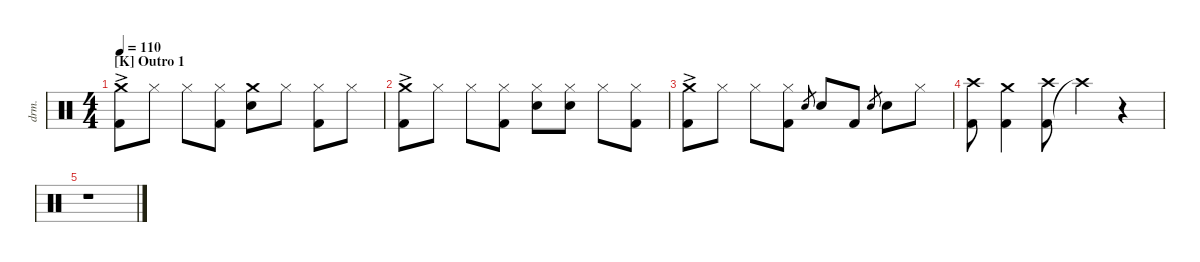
\defaultSystemsLayout 4
\hideDynamics
\bracketExtendMode nobrackets
\otherSystemsTrackNameOrientation horizontal
\track ("Drums" "drm.") {instrument percussion}
\staff {score}
\articulation defaults
\ts (4 4)
\section ("K" "Outro 1")
\tempo 110
\clef neutral
\ks aminor
("Kick (hit) 2"{ac} "Crash medium (hit)"{ac}).8{dy f beam Down} "Hi-Hat (closed)".8{beam Down} "Hi-Hat (closed)".8{beam Down} ("Hi-Hat (closed)" "Kick (hit) 2").8{beam Down} ("Snare (hit) 2" "Crash medium (hit)").8{beam Down} "Hi-Hat (closed)".8{beam Down} ("Hi-Hat (closed)" "Kick (hit) 2").8{beam Down} "Hi-Hat (closed)".8{beam Down} |
("Kick (hit) 2"{ac} "Crash medium (hit)"{ac}).8{beam Down} "Hi-Hat (closed)".8{beam Down} "Hi-Hat (closed)".8{beam Down} ("Hi-Hat (closed)" "Kick (hit) 2").8{beam Down} ("Snare (hit) 2" "Hi-Hat (closed)").8{beam Down} ("Hi-Hat (closed)" "Snare (hit) 2").8{beam Down} "Hi-Hat (closed)".8{beam Down} ("Hi-Hat (closed)" "Kick (hit) 2").8{beam Down} |
("Kick (hit) 2"{ac} "Crash medium (hit)"{ac}).8{beam Down} "Hi-Hat (closed)".8{beam Down} "Hi-Hat (closed)".8{beam Down} ("Hi-Hat (closed)" "Kick (hit) 2").8{beam Down} "Snare (hit) 2".8{gr beam Up} "Snare (hit) 2".8{beam Up} "Kick (hit) 2".8{beam Up} "Snare (hit) 2".8{gr beam Up} "Snare (hit) 2".8{beam Down} "Hi-Hat (closed)".8{beam Down} |
("Kick (hit) 2" "Crash high (hit)").8{beam Down} ("Kick (hit) 2" "Crash medium (hit)").4{beam Down} ("Kick (hit) 2" "Crash high (hit)").8{beam Down} "Crash high (hit)"{t}.4{beam Down} r.4{beam Down} |
r.1{beam Down}
